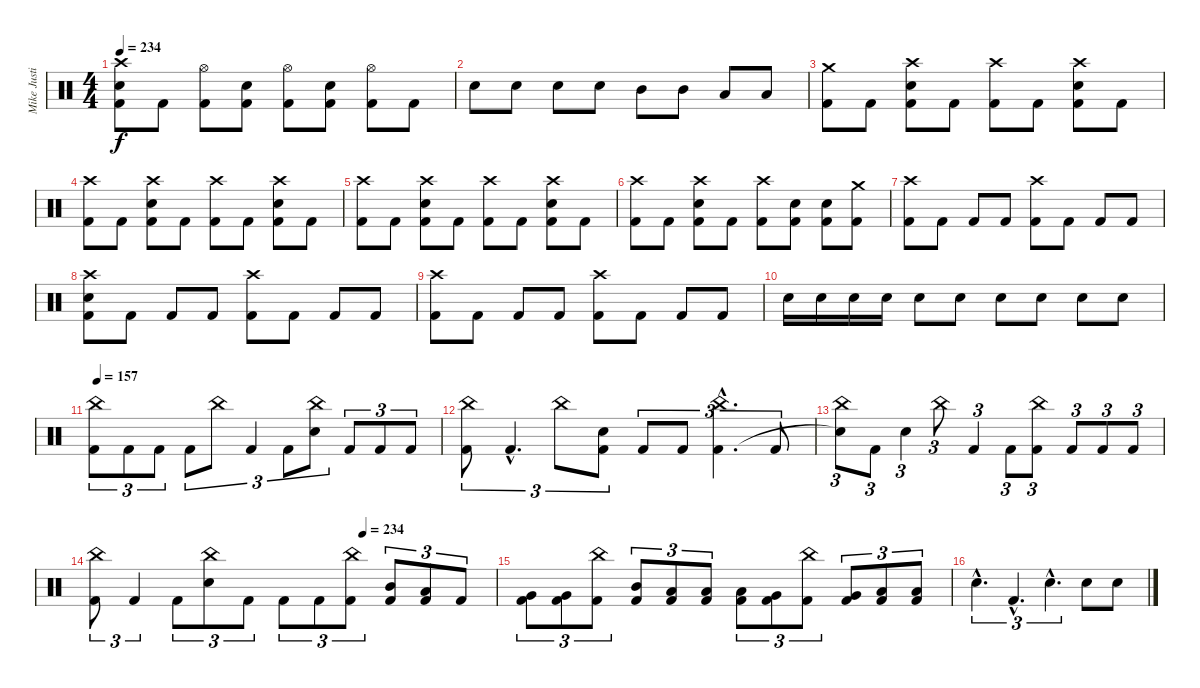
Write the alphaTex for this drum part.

\track ("Mike Justian (Drums)" "Mike Justi") {instrument percussion}
\staff {score}
\articulation defaults
\ts (4 4)
\tempo 234
\clef neutral
\ks c
("Crash high (hit)" "Kick (hit) 2" "Snare (hit) 2").8{dy f} "Kick (hit) 2".8 ("Hi-Hat (open)" "Kick (hit) 2").8 ("Kick (hit) 2" "Snare (hit) 2").8 ("Hi-Hat (open)" "Kick (hit) 2").8 ("Kick (hit) 2" "Snare (hit) 2").8 ("Hi-Hat (open)" "Kick (hit) 2").8 "Kick (hit) 2".8 |
"Snare (hit) 2".8 "Snare (hit) 2".8 "Snare (hit) 2".8 "Snare (hit) 2".8 "Mid Tom (hit)".8 "Mid Tom (hit)".8 "Low Tom (hit)".8 "Low Tom (hit)".8 |
("Crash medium (hit)" "Kick (hit) 2").8 "Kick (hit) 2".8 ("Crash high (hit)" "Snare (hit) 2" "Kick (hit) 2").8 "Kick (hit) 2".8 ("Crash high (hit)" "Kick (hit) 2").8 "Kick (hit) 2".8 ("Crash high (hit)" "Snare (hit) 2" "Kick (hit) 2").8 "Kick (hit) 2".8 |
("Crash high (hit)" "Kick (hit) 2").8 "Kick (hit) 2".8 ("Crash high (hit)" "Snare (hit) 2" "Kick (hit) 2").8 "Kick (hit) 2".8 ("Crash high (hit)" "Kick (hit) 2").8 "Kick (hit) 2".8 ("Crash high (hit)" "Snare (hit) 2" "Kick (hit) 2").8 "Kick (hit) 2".8 |
("Crash high (hit)" "Kick (hit) 2").8 "Kick (hit) 2".8 ("Crash high (hit)" "Snare (hit) 2" "Kick (hit) 2").8 "Kick (hit) 2".8 ("Crash high (hit)" "Kick (hit) 2").8 "Kick (hit) 2".8 ("Crash high (hit)" "Snare (hit) 2" "Kick (hit) 2").8 "Kick (hit) 2".8 |
("Crash high (hit)" "Kick (hit) 2").8 "Kick (hit) 2".8 ("Crash high (hit)" "Snare (hit) 2" "Kick (hit) 2").8 "Kick (hit) 2".8 ("Crash high (hit)" "Kick (hit) 2").8 ("Snare (hit) 2" "Kick (hit) 2").8 ("Snare (hit) 2" "Kick (hit) 2").8 ("Crash medium (hit)" "Kick (hit) 2").8 |
("Crash high (hit)" "Kick (hit) 2").8 "Kick (hit) 2".8 "Kick (hit) 2".8 "Kick (hit) 2".8 ("Crash high (hit)" "Kick (hit) 2").8 "Kick (hit) 2".8 "Kick (hit) 2".8 "Kick (hit) 2".8 |
("Snare (hit) 2" "Crash high (hit)" "Kick (hit) 2").8 "Kick (hit) 2".8 "Kick (hit) 2".8 "Kick (hit) 2".8 ("Crash high (hit)" "Kick (hit) 2").8 "Kick (hit) 2".8 "Kick (hit) 2".8 "Kick (hit) 2".8 |
("Crash high (hit)" "Kick (hit) 2").8 "Kick (hit) 2".8 "Kick (hit) 2".8 "Kick (hit) 2".8 ("Crash high (hit)" "Kick (hit) 2").8 "Kick (hit) 2".8 "Kick (hit) 2".8 "Kick (hit) 2".8 |
"Snare (hit) 2".16 "Snare (hit) 2".16 "Snare (hit) 2".16 "Snare (hit) 2".16 "Snare (hit) 2".8 "Snare (hit) 2".8 "Snare (hit) 2".8 "Snare (hit) 2".8 "Snare (hit) 2".8 "Snare (hit) 2".8 |
\tempo 157
("China (hit)" "Kick (hit) 2").8{tu (3 2)} "Kick (hit) 2".8{tu (3 2)} "Kick (hit) 2".8{tu (3 2)} "Kick (hit) 2".8{tu (3 2)} "China (hit)".8{tu (3 2)} "Kick (hit) 2".4{tu (3 2)} "Kick (hit) 2".8{tu (3 2)} ("China (hit)" "Snare (hit) 2").8{tu (3 2)} "Kick (hit) 2".8{tu (3 2)} "Kick (hit) 2".8{tu (3 2)} "Kick (hit) 2".8{tu (3 2)} |
("China (hit)" "Kick (hit) 2").8{tu (3 2)} "Kick (hit) 2"{hac}.4{d tu (3 2)} "China (hit)".8{tu (3 2)} ("Kick (hit) 2" "Snare (hit) 2").8{tu (3 2)} "Kick (hit) 2".8{tu (3 2)} "Kick (hit) 2".8{tu (3 2)} ("China (hit)"{hac} "Kick (hit) 2"{hac}).4{d tu (3 2)} "Kick (hit) 2".8{tu (3 2)} |
("China (hit)" "Snare (hit)"{t}).8{tu (3 2)} "Kick (hit) 2".8{tu (3 2)} "Snare (hit) 2".4{tu (3 2)} "China (hit)".8{tu (3 2)} "Kick (hit) 2".4{tu (3 2)} "Kick (hit) 2".8{tu (3 2)} ("China (hit)" "Kick (hit) 2").8{tu (3 2)} "Kick (hit) 2".8{tu (3 2)} "Kick (hit) 2".8{tu (3 2)} "Kick (hit) 2".8{tu (3 2)} |
\tempo (234 0.6666666666666666)
("China (hit)" "Kick (hit) 2").8{tu (3 2)} "Kick (hit) 2".4{tu (3 2)} "Kick (hit) 2".8{tu (3 2)} ("China (hit)" "Snare (hit) 2").8{tu (3 2)} "Kick (hit) 2".8{tu (3 2)} "Kick (hit) 2".8{tu (3 2)} "Kick (hit) 2".8{tu (3 2)} ("China (hit)" "Kick (hit) 2").8{tu (3 2)} ("Mid Tom (hit)" "Kick (hit) 2").8{tu (3 2)} ("Low Tom (hit)" "Kick (hit) 2").8{tu (3 2)} "Kick (hit) 2".8{tu (3 2)} |
("Very Low Tom (hit)" "Kick (hit) 2").8{tu (3 2)} ("Very Low Tom (hit)" "Kick (hit) 2").8{tu (3 2)} ("China (hit)" "Kick (hit) 2").8{tu (3 2)} ("Mid Tom (hit)" "Kick (hit) 2").8{tu (3 2)} ("Low Tom (hit)" "Kick (hit) 2").8{tu (3 2)} ("Low Tom (hit)" "Kick (hit) 2").8{tu (3 2)} ("Low Tom (hit)" "Kick (hit) 2").8{tu (3 2)} ("Very Low Tom (hit)" "Kick (hit) 2").8{tu (3 2)} ("China (hit)" "Kick (hit) 2").8{tu (3 2)} ("Very Low Tom (hit)" "Kick (hit) 2").8{tu (3 2)} ("Low Floor Tom (hit)" "Kick (hit) 2").8{tu (3 2)} ("Low Floor Tom (hit)" "Kick (hit) 2").8{tu (3 2)} |
"Snare (hit) 2"{hac}.4{d tu (3 2)} "Kick (hit) 2"{hac}.4{d tu (3 2)} "Snare (hit) 2"{hac}.4{d tu (3 2)} "Snare (hit) 2".8 "Snare (hit) 2".8
